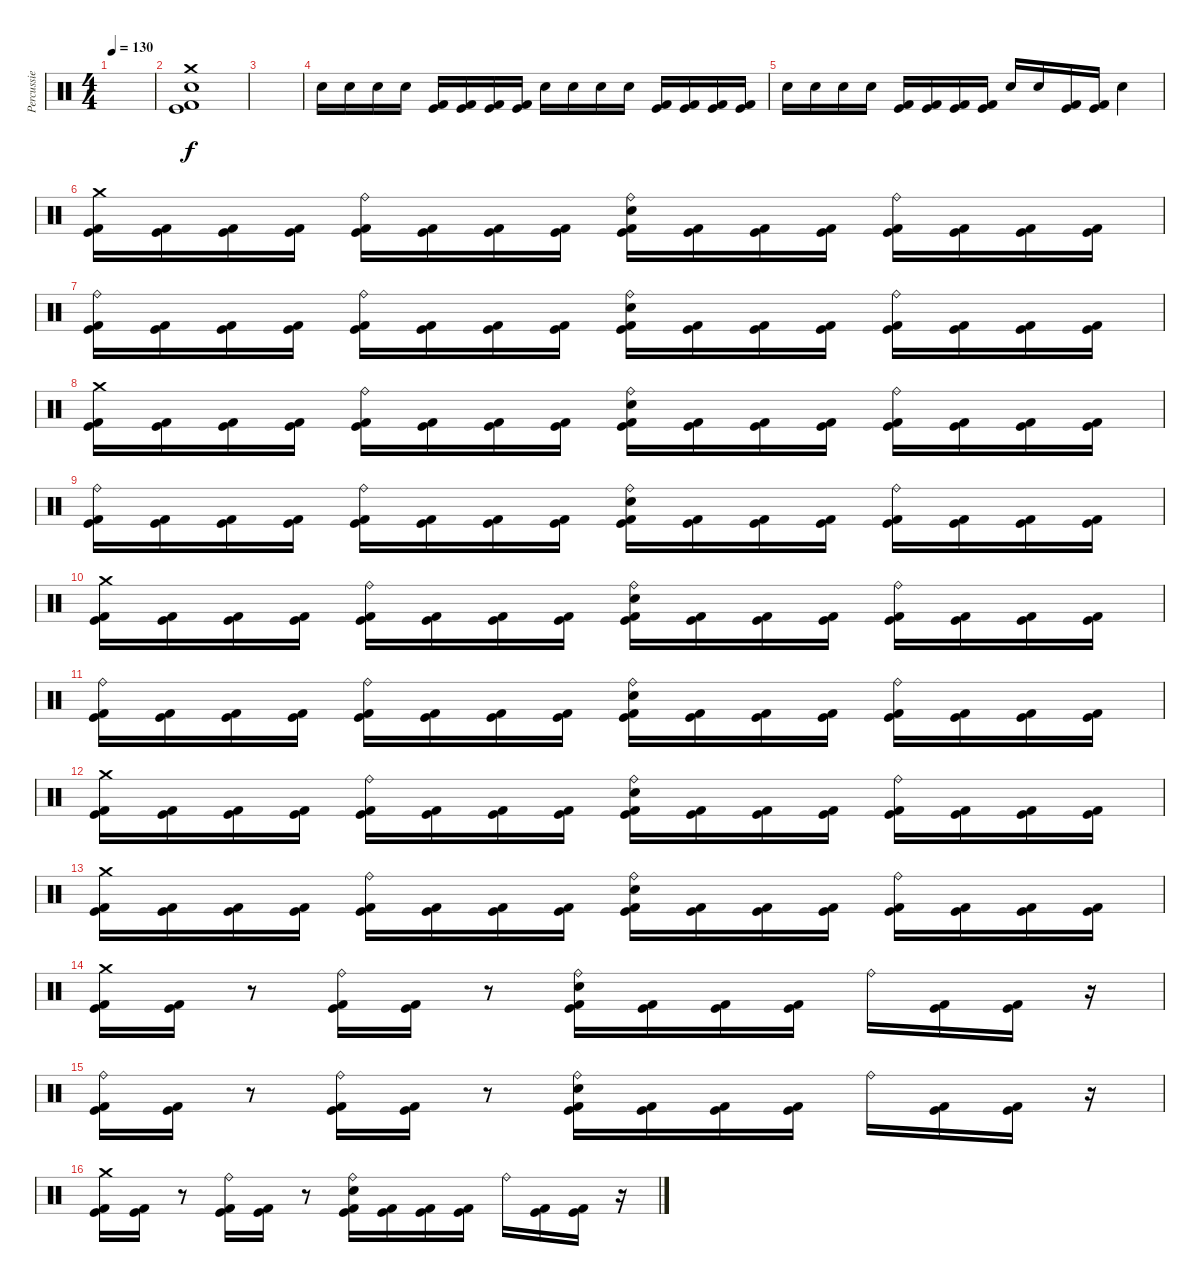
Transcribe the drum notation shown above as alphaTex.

\track ("Percussie" "Percussie") {instrument percussion}
\staff {score}
\articulation defaults
\ts (4 4)
\tempo 130
\clef neutral
\ks c
|
("Crash medium (hit)" "Electric Snare (hit)" "Kick (hit)" "Kick (hit) 2").1 |
|
"Electric Snare (hit)".16 "Electric Snare (hit)".16 "Electric Snare (hit)".16 "Electric Snare (hit)".16 ("Kick (hit)" "Kick (hit) 2").16 ("Kick (hit)" "Kick (hit) 2").16 ("Kick (hit)" "Kick (hit) 2").16 ("Kick (hit)" "Kick (hit) 2").16 "Electric Snare (hit)".16 "Electric Snare (hit)".16 "Electric Snare (hit)".16 "Electric Snare (hit)".16 ("Kick (hit)" "Kick (hit) 2").16 ("Kick (hit)" "Kick (hit) 2").16 ("Kick (hit)" "Kick (hit) 2").16 ("Kick (hit)" "Kick (hit) 2").16 |
"Electric Snare (hit)".16 "Electric Snare (hit)".16 "Electric Snare (hit)".16 "Electric Snare (hit)".16 ("Kick (hit)" "Kick (hit) 2").16 ("Kick (hit)" "Kick (hit) 2").16 ("Kick (hit)" "Kick (hit) 2").16 ("Kick (hit)" "Kick (hit) 2").16 "Electric Snare (hit)".16 "Electric Snare (hit)".16 ("Kick (hit)" "Kick (hit) 2").16 ("Kick (hit)" "Kick (hit) 2").16 "Electric Snare (hit)".4 |
("Crash medium (hit)" "Kick (hit)" "Kick (hit) 2").16 ("Kick (hit)" "Kick (hit) 2").16 ("Kick (hit)" "Kick (hit) 2").16 ("Kick (hit)" "Kick (hit) 2").16 ("Ride (bell)" "Kick (hit)" "Kick (hit) 2").16 ("Kick (hit)" "Kick (hit) 2").16 ("Kick (hit)" "Kick (hit) 2").16 ("Kick (hit)" "Kick (hit) 2").16 ("Ride (bell)" "Electric Snare (hit)" "Kick (hit)" "Kick (hit) 2").16 ("Kick (hit)" "Kick (hit) 2").16 ("Kick (hit)" "Kick (hit) 2").16 ("Kick (hit)" "Kick (hit) 2").16 ("Ride (bell)" "Kick (hit)" "Kick (hit) 2").16 ("Kick (hit)" "Kick (hit) 2").16 ("Kick (hit)" "Kick (hit) 2").16 ("Kick (hit)" "Kick (hit) 2").16 |
("Ride (bell)" "Kick (hit)" "Kick (hit) 2").16 ("Kick (hit)" "Kick (hit) 2").16 ("Kick (hit)" "Kick (hit) 2").16 ("Kick (hit)" "Kick (hit) 2").16 ("Ride (bell)" "Kick (hit)" "Kick (hit) 2").16 ("Kick (hit)" "Kick (hit) 2").16 ("Kick (hit)" "Kick (hit) 2").16 ("Kick (hit)" "Kick (hit) 2").16 ("Ride (bell)" "Electric Snare (hit)" "Kick (hit)" "Kick (hit) 2").16 ("Kick (hit)" "Kick (hit) 2").16 ("Kick (hit)" "Kick (hit) 2").16 ("Kick (hit)" "Kick (hit) 2").16 ("Ride (bell)" "Kick (hit)" "Kick (hit) 2").16 ("Kick (hit)" "Kick (hit) 2").16 ("Kick (hit)" "Kick (hit) 2").16 ("Kick (hit)" "Kick (hit) 2").16 |
("Crash medium (hit)" "Kick (hit)" "Kick (hit) 2").16 ("Kick (hit)" "Kick (hit) 2").16 ("Kick (hit)" "Kick (hit) 2").16 ("Kick (hit)" "Kick (hit) 2").16 ("Ride (bell)" "Kick (hit)" "Kick (hit) 2").16 ("Kick (hit)" "Kick (hit) 2").16 ("Kick (hit)" "Kick (hit) 2").16 ("Kick (hit)" "Kick (hit) 2").16 ("Ride (bell)" "Electric Snare (hit)" "Kick (hit)" "Kick (hit) 2").16 ("Kick (hit)" "Kick (hit) 2").16 ("Kick (hit)" "Kick (hit) 2").16 ("Kick (hit)" "Kick (hit) 2").16 ("Ride (bell)" "Kick (hit)" "Kick (hit) 2").16 ("Kick (hit)" "Kick (hit) 2").16 ("Kick (hit)" "Kick (hit) 2").16 ("Kick (hit)" "Kick (hit) 2").16 |
("Ride (bell)" "Kick (hit)" "Kick (hit) 2").16 ("Kick (hit)" "Kick (hit) 2").16 ("Kick (hit)" "Kick (hit) 2").16 ("Kick (hit)" "Kick (hit) 2").16 ("Ride (bell)" "Kick (hit)" "Kick (hit) 2").16 ("Kick (hit)" "Kick (hit) 2").16 ("Kick (hit)" "Kick (hit) 2").16 ("Kick (hit)" "Kick (hit) 2").16 ("Ride (bell)" "Electric Snare (hit)" "Kick (hit)" "Kick (hit) 2").16 ("Kick (hit)" "Kick (hit) 2").16 ("Kick (hit)" "Kick (hit) 2").16 ("Kick (hit)" "Kick (hit) 2").16 ("Ride (bell)" "Kick (hit)" "Kick (hit) 2").16 ("Kick (hit)" "Kick (hit) 2").16 ("Kick (hit)" "Kick (hit) 2").16 ("Kick (hit)" "Kick (hit) 2").16 |
("Crash medium (hit)" "Kick (hit)" "Kick (hit) 2").16 ("Kick (hit)" "Kick (hit) 2").16 ("Kick (hit)" "Kick (hit) 2").16 ("Kick (hit)" "Kick (hit) 2").16 ("Ride (bell)" "Kick (hit)" "Kick (hit) 2").16 ("Kick (hit)" "Kick (hit) 2").16 ("Kick (hit)" "Kick (hit) 2").16 ("Kick (hit)" "Kick (hit) 2").16 ("Ride (bell)" "Electric Snare (hit)" "Kick (hit)" "Kick (hit) 2").16 ("Kick (hit)" "Kick (hit) 2").16 ("Kick (hit)" "Kick (hit) 2").16 ("Kick (hit)" "Kick (hit) 2").16 ("Ride (bell)" "Kick (hit)" "Kick (hit) 2").16 ("Kick (hit)" "Kick (hit) 2").16 ("Kick (hit)" "Kick (hit) 2").16 ("Kick (hit)" "Kick (hit) 2").16 |
("Ride (bell)" "Kick (hit)" "Kick (hit) 2").16 ("Kick (hit)" "Kick (hit) 2").16 ("Kick (hit)" "Kick (hit) 2").16 ("Kick (hit)" "Kick (hit) 2").16 ("Ride (bell)" "Kick (hit)" "Kick (hit) 2").16 ("Kick (hit)" "Kick (hit) 2").16 ("Kick (hit)" "Kick (hit) 2").16 ("Kick (hit)" "Kick (hit) 2").16 ("Ride (bell)" "Electric Snare (hit)" "Kick (hit)" "Kick (hit) 2").16 ("Kick (hit)" "Kick (hit) 2").16 ("Kick (hit)" "Kick (hit) 2").16 ("Kick (hit)" "Kick (hit) 2").16 ("Ride (bell)" "Kick (hit)" "Kick (hit) 2").16 ("Kick (hit)" "Kick (hit) 2").16 ("Kick (hit)" "Kick (hit) 2").16 ("Kick (hit)" "Kick (hit) 2").16 |
("Crash medium (hit)" "Kick (hit)" "Kick (hit) 2").16 ("Kick (hit)" "Kick (hit) 2").16 ("Kick (hit)" "Kick (hit) 2").16 ("Kick (hit)" "Kick (hit) 2").16 ("Ride (bell)" "Kick (hit)" "Kick (hit) 2").16 ("Kick (hit)" "Kick (hit) 2").16 ("Kick (hit)" "Kick (hit) 2").16 ("Kick (hit)" "Kick (hit) 2").16 ("Ride (bell)" "Electric Snare (hit)" "Kick (hit)" "Kick (hit) 2").16 ("Kick (hit)" "Kick (hit) 2").16 ("Kick (hit)" "Kick (hit) 2").16 ("Kick (hit)" "Kick (hit) 2").16 ("Ride (bell)" "Kick (hit)" "Kick (hit) 2").16 ("Kick (hit)" "Kick (hit) 2").16 ("Kick (hit)" "Kick (hit) 2").16 ("Kick (hit)" "Kick (hit) 2").16 |
("Crash medium (hit)" "Kick (hit)" "Kick (hit) 2").16 ("Kick (hit)" "Kick (hit) 2").16 ("Kick (hit)" "Kick (hit) 2").16 ("Kick (hit)" "Kick (hit) 2").16 ("Ride (bell)" "Kick (hit)" "Kick (hit) 2").16 ("Kick (hit)" "Kick (hit) 2").16 ("Kick (hit)" "Kick (hit) 2").16 ("Kick (hit)" "Kick (hit) 2").16 ("Ride (bell)" "Electric Snare (hit)" "Kick (hit)" "Kick (hit) 2").16 ("Kick (hit)" "Kick (hit) 2").16 ("Kick (hit)" "Kick (hit) 2").16 ("Kick (hit)" "Kick (hit) 2").16 ("Ride (bell)" "Kick (hit)" "Kick (hit) 2").16 ("Kick (hit)" "Kick (hit) 2").16 ("Kick (hit)" "Kick (hit) 2").16 ("Kick (hit)" "Kick (hit) 2").16 |
("Crash medium (hit)" "Kick (hit)" "Kick (hit) 2").16 ("Kick (hit)" "Kick (hit) 2").16 r.8 ("Ride (bell)" "Kick (hit)" "Kick (hit) 2").16 ("Kick (hit)" "Kick (hit) 2").16 r.8 ("Ride (bell)" "Electric Snare (hit)" "Kick (hit)" "Kick (hit) 2").16 ("Kick (hit)" "Kick (hit) 2").16 ("Kick (hit)" "Kick (hit) 2").16 ("Kick (hit)" "Kick (hit) 2").16 "Ride (bell)".16 ("Kick (hit)" "Kick (hit) 2").16 ("Kick (hit)" "Kick (hit) 2").16 r.16 |
("Ride (bell)" "Kick (hit)" "Kick (hit) 2").16 ("Kick (hit)" "Kick (hit) 2").16 r.8 ("Ride (bell)" "Kick (hit)" "Kick (hit) 2").16 ("Kick (hit)" "Kick (hit) 2").16 r.8 ("Ride (bell)" "Electric Snare (hit)" "Kick (hit)" "Kick (hit) 2").16 ("Kick (hit)" "Kick (hit) 2").16 ("Kick (hit)" "Kick (hit) 2").16 ("Kick (hit)" "Kick (hit) 2").16 "Ride (bell)".16 ("Kick (hit)" "Kick (hit) 2").16 ("Kick (hit)" "Kick (hit) 2").16 r.16 |
("Crash medium (hit)" "Kick (hit)" "Kick (hit) 2").16 ("Kick (hit)" "Kick (hit) 2").16 r.8 ("Ride (bell)" "Kick (hit)" "Kick (hit) 2").16 ("Kick (hit)" "Kick (hit) 2").16 r.8 ("Ride (bell)" "Electric Snare (hit)" "Kick (hit)" "Kick (hit) 2").16 ("Kick (hit)" "Kick (hit) 2").16 ("Kick (hit)" "Kick (hit) 2").16 ("Kick (hit)" "Kick (hit) 2").16 "Ride (bell)".16 ("Kick (hit)" "Kick (hit) 2").16 ("Kick (hit)" "Kick (hit) 2").16 r.16
